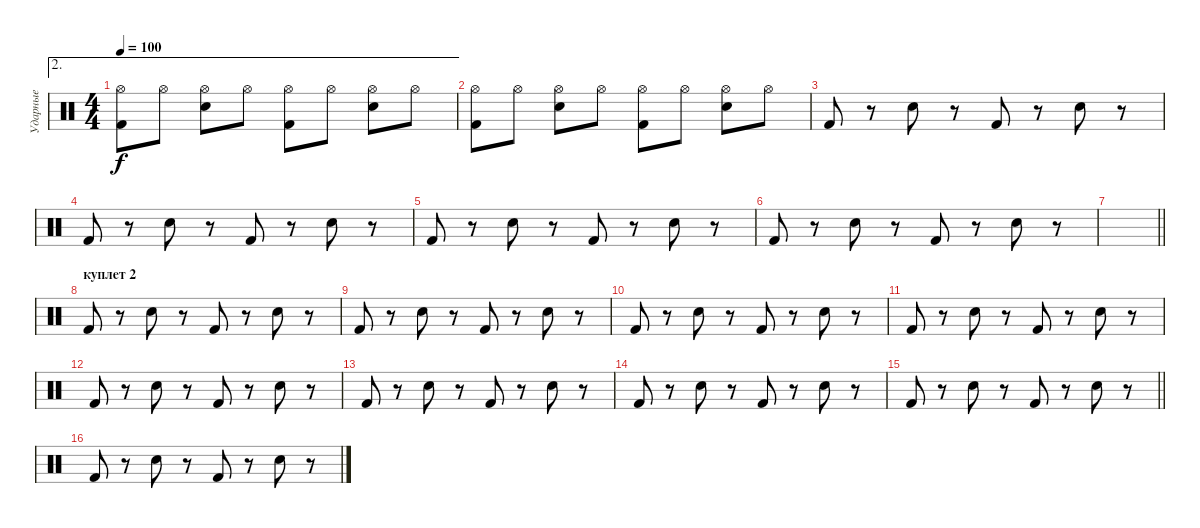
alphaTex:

\track ("Ударные" "Ударные") {instrument percussion}
\staff {score}
\articulation defaults
\ae 2
\ts (4 4)
\tempo 100
\clef neutral
\ks c
("Hi-Hat (open)" "Kick (hit) 2").8{dy f} "Hi-Hat (open)".8 ("Hi-Hat (open)" "Snare (hit) 2").8 "Hi-Hat (open)".8 ("Hi-Hat (open)" "Kick (hit) 2").8 "Hi-Hat (open)".8 ("Hi-Hat (open)" "Snare (hit) 2").8 "Hi-Hat (open)".8 |
("Hi-Hat (open)" "Kick (hit) 2").8 "Hi-Hat (open)".8 ("Hi-Hat (open)" "Snare (hit) 2").8 "Hi-Hat (open)".8 ("Hi-Hat (open)" "Kick (hit) 2").8 "Hi-Hat (open)".8 ("Hi-Hat (open)" "Snare (hit) 2").8 "Hi-Hat (open)".8 |
"Kick (hit) 2".8 r.8 "Hand Clap (hit)".8 r.8 "Kick (hit) 2".8 r.8 "Hand Clap (hit)".8 r.8 |
"Kick (hit) 2".8 r.8 "Hand Clap (hit)".8 r.8 "Kick (hit) 2".8 r.8 "Hand Clap (hit)".8 r.8 |
"Kick (hit) 2".8 r.8 "Hand Clap (hit)".8 r.8 "Kick (hit) 2".8 r.8 "Hand Clap (hit)".8 r.8 |
"Kick (hit) 2".8 r.8 "Hand Clap (hit)".8 r.8 "Kick (hit) 2".8 r.8 "Hand Clap (hit)".8 r.8 |
\barLineRight lightlight
|
\section ("" "куплет 2")
"Kick (hit) 2".8 r.8 "Hand Clap (hit)".8 r.8 "Kick (hit) 2".8 r.8 "Hand Clap (hit)".8 r.8 |
"Kick (hit) 2".8 r.8 "Hand Clap (hit)".8 r.8 "Kick (hit) 2".8 r.8 "Hand Clap (hit)".8 r.8 |
"Kick (hit) 2".8 r.8 "Hand Clap (hit)".8 r.8 "Kick (hit) 2".8 r.8 "Hand Clap (hit)".8 r.8 |
"Kick (hit) 2".8 r.8 "Hand Clap (hit)".8 r.8 "Kick (hit) 2".8 r.8 "Hand Clap (hit)".8 r.8 |
"Kick (hit) 2".8 r.8 "Hand Clap (hit)".8 r.8 "Kick (hit) 2".8 r.8 "Hand Clap (hit)".8 r.8 |
"Kick (hit) 2".8 r.8 "Hand Clap (hit)".8 r.8 "Kick (hit) 2".8 r.8 "Hand Clap (hit)".8 r.8 |
"Kick (hit) 2".8 r.8 "Hand Clap (hit)".8 r.8 "Kick (hit) 2".8 r.8 "Hand Clap (hit)".8 r.8 |
\barLineRight lightlight "Kick (hit) 2".8
r.8 "Hand Clap (hit)".8 r.8 "Kick (hit) 2".8 r.8 "Hand Clap (hit)".8 r.8 |
"Kick (hit) 2".8 r.8 "Hand Clap (hit)".8 r.8 "Kick (hit) 2".8 r.8 "Hand Clap (hit)".8 r.8
